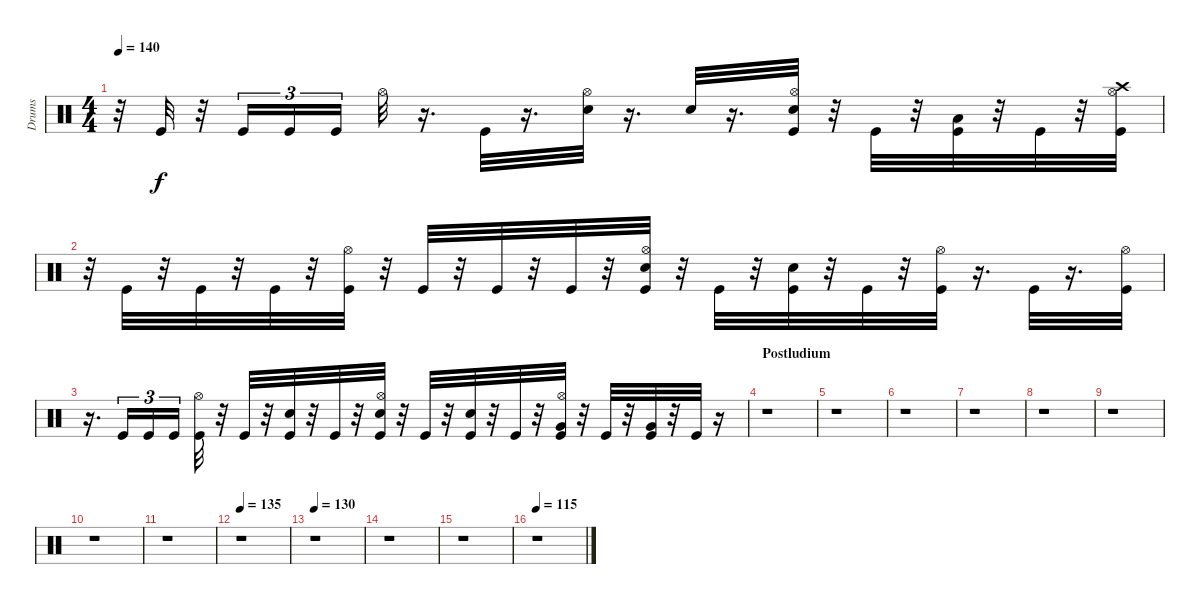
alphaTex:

\track ("Drums" "Drums") {instrument percussion}
\staff {score}
\articulation defaults
\ts (4 4)
\tempo 140
\clef neutral
\ks c
r.32{dy f} "Kick (hit)".32 r.32 "Kick (hit)".16{tu (3 2)} "Kick (hit)".16{tu (3 2)} "Kick (hit)".16{tu (3 2)} "Hi-Hat (open)".32 r.16{d} "Kick (hit)".32 r.16{d} ("Hi-Hat (open)" "Electric Snare (hit)").32 r.16{d} "Electric Snare (hit)".32 r.16{d} ("Electric Snare (hit)" "Hi-Hat (open)" "Kick (hit)").32 r.32 "Kick (hit)".32 r.32 ("Low Floor Tom (hit)" "Kick (hit)").32 r.32 "Kick (hit)".32 r.32 ("Crash high (hit)" "Hi-Hat (open)" "Kick (hit)").32 |
r.32 "Kick (hit)".32 r.32 "Kick (hit)".32 r.32 "Kick (hit)".32 r.32 ("Kick (hit)" "Hi-Hat (open)").32 r.32 "Kick (hit)".32 r.32 "Kick (hit)".32 r.32 "Kick (hit)".32 r.32 ("Kick (hit)" "Hi-Hat (open)" "Electric Snare (hit)").32 r.32 "Kick (hit)".32 r.32 ("Electric Snare (hit)" "Kick (hit)").32 r.32 "Kick (hit)".32 r.32 ("Hi-Hat (open)" "Kick (hit)").32 r.16{d} "Kick (hit)".32 r.16{d} ("Hi-Hat (open)" "Kick (hit)").32 |
r.16{d} "Kick (hit)".16{tu (3 2)} "Kick (hit)".16{tu (3 2)} "Kick (hit)".16{tu (3 2)} ("Kick (hit)" "Hi-Hat (open)").32 r.32 "Kick (hit)".32 r.32 ("Kick (hit)" "Electric Snare (hit)").32 r.32 "Kick (hit)".32 r.32 ("Hi-Hat (open)" "Electric Snare (hit)" "Kick (hit)").32 r.32 "Kick (hit)".32 r.32 ("Kick (hit)" "Electric Snare (hit)").32 r.32 "Kick (hit)".32 r.32 ("Kick (hit)" "Hi-Hat (open)" "Very Low Tom (hit)").32 r.32 "Kick (hit)".32 r.32 ("Kick (hit)" "Very Low Tom (hit)").32 r.32 "Kick (hit)".32 r.16 |
\section ("" "Postludium")
r.1 |
r.1 |
r.1 |
r.1 |
r.1 |
r.1 |
r.1 |
r.1 |
\tempo 135
r.1 |
\tempo 130
r.1 |
r.1 |
r.1 |
\tempo 115
r.1
